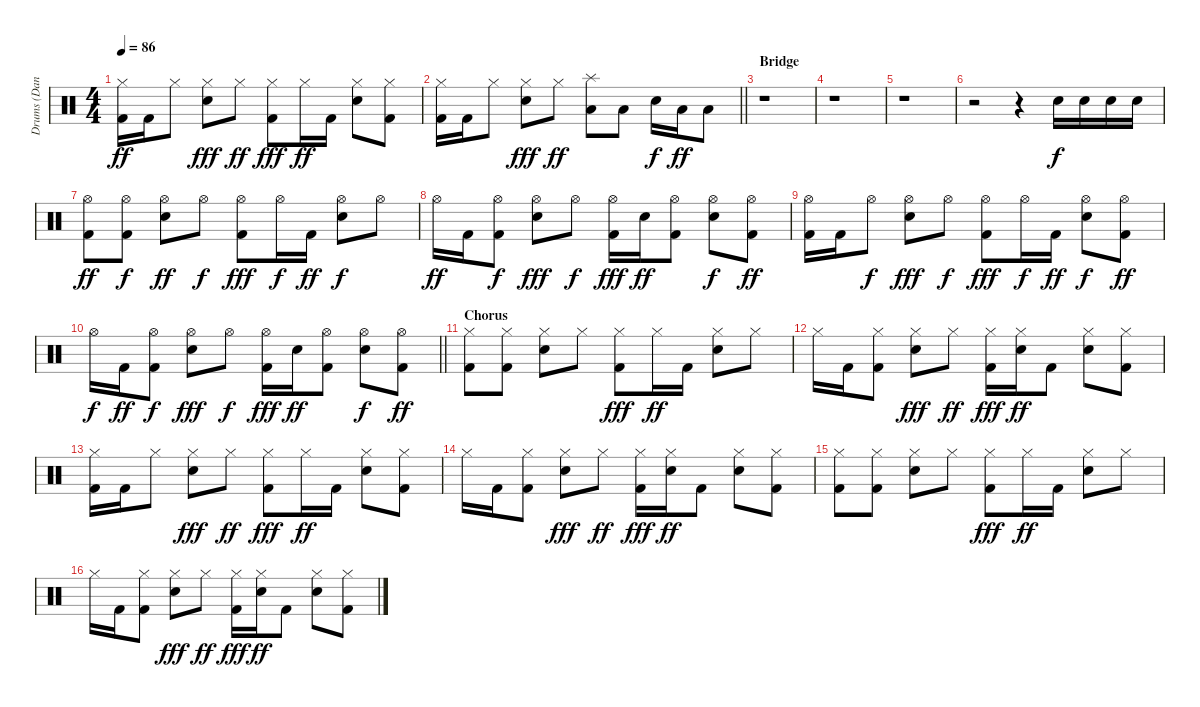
\track ("Drums (Dan)" "Drums (Dan") {instrument percussion}
\staff {score}
\articulation defaults
\ts (4 4)
\tempo 86
\clef neutral
\ks c
("Hi-Hat (closed)" "Kick (hit) 2").16{dy ff} "Kick (hit) 2".16 "Hi-Hat (closed)".8 ("Hi-Hat (closed)" "Electric Snare (hit)").8{dy fff} "Hi-Hat (closed)".8{dy ff} ("Hi-Hat (closed)" "Kick (hit) 2").8{dy fff} "Hi-Hat (closed)".16{dy ff} "Kick (hit) 2".16 ("Hi-Hat (closed)" "Electric Snare (hit)").8 ("Hi-Hat (closed)" "Kick (hit) 2").8 |
\barLineRight lightlight
("Hi-Hat (closed)" "Kick (hit) 2").16 "Kick (hit) 2".16 "Hi-Hat (closed)".8 ("Hi-Hat (closed)" "Electric Snare (hit)").8{dy fff} "Hi-Hat (closed)".8{dy ff} ("Splash (hit)" "Low Tom (hit)").8 "Low Floor Tom (hit)".8 "Electric Snare (hit)".16{dy f} "Low Tom (hit)".16{dy ff} "Low Floor Tom (hit)".8 |
\section ("" "Bridge")
r.1 |
r.1 |
r.1 |
r.2 r.4 "Electric Snare (hit)".16{dy f} "Electric Snare (hit)".16 "Electric Snare (hit)".16 "Electric Snare (hit)".16 |
("Hi-Hat (open)" "Kick (hit) 2").8{dy ff} ("Hi-Hat (open)" "Kick (hit) 2").8{dy f} ("Hi-Hat (open)" "Electric Snare (hit)").8{dy ff} "Hi-Hat (open)".8{dy f} ("Hi-Hat (open)" "Kick (hit) 2").8{dy fff} "Hi-Hat (open)".16{dy f} "Kick (hit) 2".16{dy ff} ("Hi-Hat (open)" "Electric Snare (hit)").8{dy f} "Hi-Hat (open)".8 |
"Hi-Hat (open)".16{dy ff} "Kick (hit) 2".16 ("Hi-Hat (open)" "Kick (hit) 2").8{dy f} ("Hi-Hat (open)" "Electric Snare (hit)").8{dy fff} "Hi-Hat (open)".8{dy f} ("Hi-Hat (open)" "Kick (hit) 2").16{dy fff} "Electric Snare (hit)".16{dy ff} ("Hi-Hat (open)" "Kick (hit) 2").8 ("Hi-Hat (open)" "Electric Snare (hit)").8{dy f} ("Hi-Hat (open)" "Kick (hit) 2").8{dy ff} |
("Hi-Hat (open)" "Kick (hit) 2").16 "Kick (hit) 2".16 "Hi-Hat (open)".8{dy f} ("Hi-Hat (open)" "Electric Snare (hit)").8{dy fff} "Hi-Hat (open)".8{dy f} ("Hi-Hat (open)" "Kick (hit) 2").8{dy fff} "Hi-Hat (open)".16{dy f} "Kick (hit) 2".16{dy ff} ("Hi-Hat (open)" "Electric Snare (hit)").8{dy f} ("Hi-Hat (open)" "Kick (hit) 2").8{dy ff} |
\barLineRight lightlight "Hi-Hat (open)".16{dy f} "Kick (hit) 2".16{dy ff}
("Hi-Hat (open)" "Kick (hit) 2").8{dy f} ("Hi-Hat (open)" "Electric Snare (hit)").8{dy fff} "Hi-Hat (open)".8{dy f} ("Hi-Hat (open)" "Kick (hit) 2").16{dy fff} "Electric Snare (hit)".16{dy ff} ("Hi-Hat (open)" "Kick (hit) 2").8 ("Hi-Hat (open)" "Electric Snare (hit)").8{dy f} ("Hi-Hat (open)" "Kick (hit) 2").8{dy ff} |
\section ("" "Chorus")
("Hi-Hat (closed)" "Kick (hit) 2").8 ("Hi-Hat (closed)" "Kick (hit) 2").8 ("Hi-Hat (closed)" "Electric Snare (hit)").8 "Hi-Hat (closed)".8 ("Hi-Hat (closed)" "Kick (hit) 2").8{dy fff} "Hi-Hat (closed)".16{dy ff} "Kick (hit) 2".16 ("Hi-Hat (closed)" "Electric Snare (hit)").8 "Hi-Hat (closed)".8 |
"Hi-Hat (closed)".16 "Kick (hit) 2".16 ("Hi-Hat (closed)" "Kick (hit) 2").8 ("Hi-Hat (closed)" "Electric Snare (hit)").8{dy fff} "Hi-Hat (closed)".8{dy ff} ("Hi-Hat (closed)" "Kick (hit) 2").16{dy fff} ("Hi-Hat (closed)" "Electric Snare (hit)").16{dy ff} "Kick (hit) 2".8 ("Hi-Hat (closed)" "Electric Snare (hit)").8 ("Hi-Hat (closed)" "Kick (hit) 2").8 |
("Hi-Hat (closed)" "Kick (hit) 2").16 "Kick (hit) 2".16 "Hi-Hat (closed)".8 ("Hi-Hat (closed)" "Electric Snare (hit)").8{dy fff} "Hi-Hat (closed)".8{dy ff} ("Hi-Hat (closed)" "Kick (hit) 2").8{dy fff} "Hi-Hat (closed)".16{dy ff} "Kick (hit) 2".16 ("Hi-Hat (closed)" "Electric Snare (hit)").8 ("Hi-Hat (closed)" "Kick (hit) 2").8 |
"Hi-Hat (closed)".16 "Kick (hit) 2".16 ("Hi-Hat (closed)" "Kick (hit) 2").8 ("Hi-Hat (closed)" "Electric Snare (hit)").8{dy fff} "Hi-Hat (closed)".8{dy ff} ("Hi-Hat (closed)" "Kick (hit) 2").16{dy fff} ("Hi-Hat (closed)" "Electric Snare (hit)").16{dy ff} "Kick (hit) 2".8 ("Hi-Hat (closed)" "Electric Snare (hit)").8 ("Hi-Hat (closed)" "Kick (hit) 2").8 |
("Hi-Hat (closed)" "Kick (hit) 2").8 ("Hi-Hat (closed)" "Kick (hit) 2").8 ("Hi-Hat (closed)" "Electric Snare (hit)").8 "Hi-Hat (closed)".8 ("Hi-Hat (closed)" "Kick (hit) 2").8{dy fff} "Hi-Hat (closed)".16{dy ff} "Kick (hit) 2".16 ("Hi-Hat (closed)" "Electric Snare (hit)").8 "Hi-Hat (closed)".8 |
"Hi-Hat (closed)".16 "Kick (hit) 2".16 ("Hi-Hat (closed)" "Kick (hit) 2").8 ("Hi-Hat (closed)" "Electric Snare (hit)").8{dy fff} "Hi-Hat (closed)".8{dy ff} ("Hi-Hat (closed)" "Kick (hit) 2").16{dy fff} ("Hi-Hat (closed)" "Electric Snare (hit)").16{dy ff} "Kick (hit) 2".8 ("Hi-Hat (closed)" "Electric Snare (hit)").8 ("Hi-Hat (closed)" "Kick (hit) 2").8
